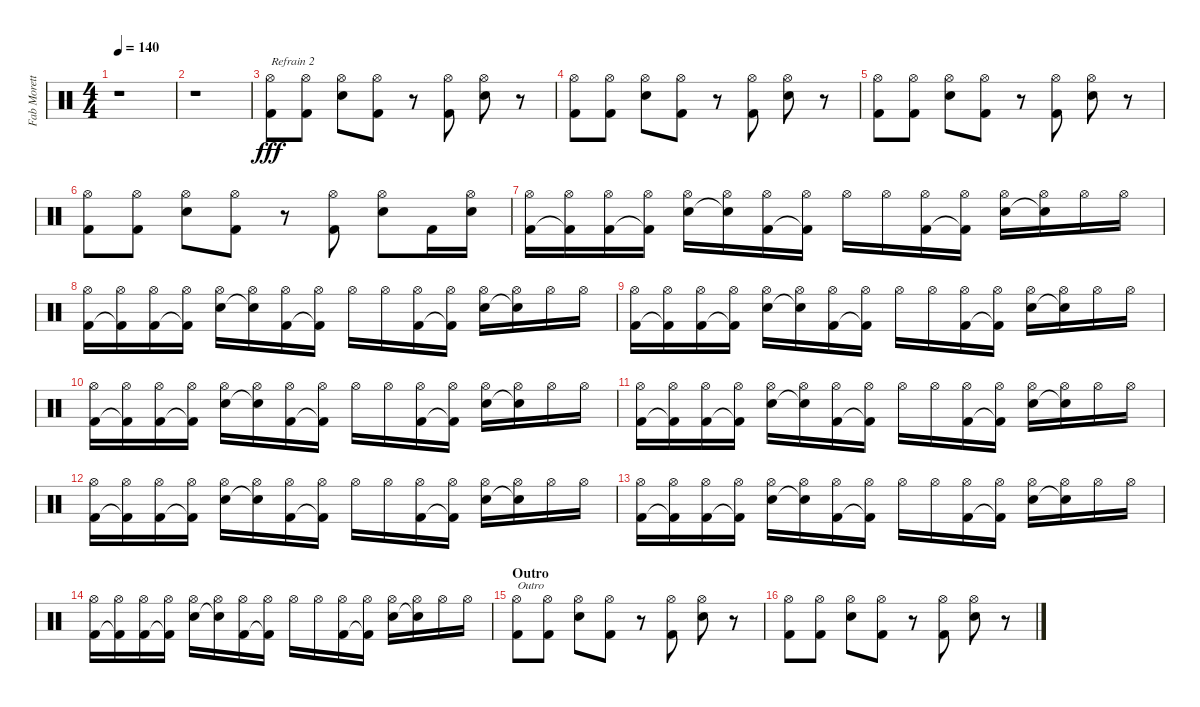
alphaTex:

\track ("Fab Moretti" "Fab Morett") {instrument percussion}
\staff {score}
\articulation defaults
\ts (4 4)
\tempo 140
\clef neutral
\ks c
r.1{dy fff} |
r.1 |
("Hi-Hat (open)" "Kick (hit) 2").8{txt "Refrain 2"} ("Hi-Hat (open)" "Kick (hit) 2").8 ("Hi-Hat (open)" "Snare (hit) 2").8 ("Hi-Hat (open)" "Kick (hit) 2").8 r.8 ("Hi-Hat (open)" "Kick (hit) 2").8 ("Hi-Hat (open)" "Snare (hit) 2").8 r.8 |
("Hi-Hat (open)" "Kick (hit) 2").8 ("Hi-Hat (open)" "Kick (hit) 2").8 ("Hi-Hat (open)" "Snare (hit) 2").8 ("Hi-Hat (open)" "Kick (hit) 2").8 r.8 ("Hi-Hat (open)" "Kick (hit) 2").8 ("Hi-Hat (open)" "Snare (hit) 2").8 r.8 |
("Hi-Hat (open)" "Kick (hit) 2").8 ("Hi-Hat (open)" "Kick (hit) 2").8 ("Hi-Hat (open)" "Snare (hit) 2").8 ("Hi-Hat (open)" "Kick (hit) 2").8 r.8 ("Hi-Hat (open)" "Kick (hit) 2").8 ("Hi-Hat (open)" "Snare (hit) 2").8 r.8 |
("Hi-Hat (open)" "Kick (hit) 2").8 ("Hi-Hat (open)" "Kick (hit) 2").8 ("Hi-Hat (open)" "Snare (hit) 2").8 ("Hi-Hat (open)" "Kick (hit) 2").8 r.8 ("Hi-Hat (open)" "Kick (hit) 2").8 ("Hi-Hat (open)" "Snare (hit) 2").8 "Kick (hit) 2".16 ("Hi-Hat (open)" "Snare (hit) 2").16 |
("Hi-Hat (open)" "Kick (hit) 2").16 ("Hi-Hat (open)" "Kick (hit) 2"{t}).16 ("Hi-Hat (open)" "Kick (hit) 2").16 ("Hi-Hat (open)" "Kick (hit) 2"{t}).16 ("Hi-Hat (open)" "Snare (hit) 2").16 ("Hi-Hat (open)" "Snare (hit) 2"{t}).16 ("Hi-Hat (open)" "Kick (hit) 2").16 ("Hi-Hat (open)" "Kick (hit) 2"{t}).16 "Hi-Hat (open)".16 "Hi-Hat (open)".16 ("Hi-Hat (open)" "Kick (hit) 2").16 ("Hi-Hat (open)" "Kick (hit) 2"{t}).16 ("Hi-Hat (open)" "Snare (hit) 2").16 ("Hi-Hat (open)" "Snare (hit) 2"{t}).16 "Hi-Hat (open)".16 "Hi-Hat (open)".16 |
("Hi-Hat (open)" "Kick (hit) 2").16 ("Hi-Hat (open)" "Kick (hit) 2"{t}).16 ("Hi-Hat (open)" "Kick (hit) 2").16 ("Hi-Hat (open)" "Kick (hit) 2"{t}).16 ("Hi-Hat (open)" "Snare (hit) 2").16 ("Hi-Hat (open)" "Snare (hit) 2"{t}).16 ("Hi-Hat (open)" "Kick (hit) 2").16 ("Hi-Hat (open)" "Kick (hit) 2"{t}).16 "Hi-Hat (open)".16 "Hi-Hat (open)".16 ("Hi-Hat (open)" "Kick (hit) 2").16 ("Hi-Hat (open)" "Kick (hit) 2"{t}).16 ("Hi-Hat (open)" "Snare (hit) 2").16 ("Hi-Hat (open)" "Snare (hit) 2"{t}).16 "Hi-Hat (open)".16 "Hi-Hat (open)".16 |
("Hi-Hat (open)" "Kick (hit) 2").16 ("Hi-Hat (open)" "Kick (hit) 2"{t}).16 ("Hi-Hat (open)" "Kick (hit) 2").16 ("Hi-Hat (open)" "Kick (hit) 2"{t}).16 ("Hi-Hat (open)" "Snare (hit) 2").16 ("Hi-Hat (open)" "Snare (hit) 2"{t}).16 ("Hi-Hat (open)" "Kick (hit) 2").16 ("Hi-Hat (open)" "Kick (hit) 2"{t}).16 "Hi-Hat (open)".16 "Hi-Hat (open)".16 ("Hi-Hat (open)" "Kick (hit) 2").16 ("Hi-Hat (open)" "Kick (hit) 2"{t}).16 ("Hi-Hat (open)" "Snare (hit) 2").16 ("Hi-Hat (open)" "Snare (hit) 2"{t}).16 "Hi-Hat (open)".16 "Hi-Hat (open)".16 |
("Hi-Hat (open)" "Kick (hit) 2").16 ("Hi-Hat (open)" "Kick (hit) 2"{t}).16 ("Hi-Hat (open)" "Kick (hit) 2").16 ("Hi-Hat (open)" "Kick (hit) 2"{t}).16 ("Hi-Hat (open)" "Snare (hit) 2").16 ("Hi-Hat (open)" "Snare (hit) 2"{t}).16 ("Hi-Hat (open)" "Kick (hit) 2").16 ("Hi-Hat (open)" "Kick (hit) 2"{t}).16 "Hi-Hat (open)".16 "Hi-Hat (open)".16 ("Hi-Hat (open)" "Kick (hit) 2").16 ("Hi-Hat (open)" "Kick (hit) 2"{t}).16 ("Hi-Hat (open)" "Snare (hit) 2").16 ("Hi-Hat (open)" "Snare (hit) 2"{t}).16 "Hi-Hat (open)".16 "Hi-Hat (open)".16 |
("Hi-Hat (open)" "Kick (hit) 2").16 ("Hi-Hat (open)" "Kick (hit) 2"{t}).16 ("Hi-Hat (open)" "Kick (hit) 2").16 ("Hi-Hat (open)" "Kick (hit) 2"{t}).16 ("Hi-Hat (open)" "Snare (hit) 2").16 ("Hi-Hat (open)" "Snare (hit) 2"{t}).16 ("Hi-Hat (open)" "Kick (hit) 2").16 ("Hi-Hat (open)" "Kick (hit) 2"{t}).16 "Hi-Hat (open)".16 "Hi-Hat (open)".16 ("Hi-Hat (open)" "Kick (hit) 2").16 ("Hi-Hat (open)" "Kick (hit) 2"{t}).16 ("Hi-Hat (open)" "Snare (hit) 2").16 ("Hi-Hat (open)" "Snare (hit) 2"{t}).16 "Hi-Hat (open)".16 "Hi-Hat (open)".16 |
("Hi-Hat (open)" "Kick (hit) 2").16 ("Hi-Hat (open)" "Kick (hit) 2"{t}).16 ("Hi-Hat (open)" "Kick (hit) 2").16 ("Hi-Hat (open)" "Kick (hit) 2"{t}).16 ("Hi-Hat (open)" "Snare (hit) 2").16 ("Hi-Hat (open)" "Snare (hit) 2"{t}).16 ("Hi-Hat (open)" "Kick (hit) 2").16 ("Hi-Hat (open)" "Kick (hit) 2"{t}).16 "Hi-Hat (open)".16 "Hi-Hat (open)".16 ("Hi-Hat (open)" "Kick (hit) 2").16 ("Hi-Hat (open)" "Kick (hit) 2"{t}).16 ("Hi-Hat (open)" "Snare (hit) 2").16 ("Hi-Hat (open)" "Snare (hit) 2"{t}).16 "Hi-Hat (open)".16 "Hi-Hat (open)".16 |
("Hi-Hat (open)" "Kick (hit) 2").16 ("Hi-Hat (open)" "Kick (hit) 2"{t}).16 ("Hi-Hat (open)" "Kick (hit) 2").16 ("Hi-Hat (open)" "Kick (hit) 2"{t}).16 ("Hi-Hat (open)" "Snare (hit) 2").16 ("Hi-Hat (open)" "Snare (hit) 2"{t}).16 ("Hi-Hat (open)" "Kick (hit) 2").16 ("Hi-Hat (open)" "Kick (hit) 2"{t}).16 "Hi-Hat (open)".16 "Hi-Hat (open)".16 ("Hi-Hat (open)" "Kick (hit) 2").16 ("Hi-Hat (open)" "Kick (hit) 2"{t}).16 ("Hi-Hat (open)" "Snare (hit) 2").16 ("Hi-Hat (open)" "Snare (hit) 2"{t}).16 "Hi-Hat (open)".16 "Hi-Hat (open)".16 |
("Hi-Hat (open)" "Kick (hit) 2").16 ("Hi-Hat (open)" "Kick (hit) 2"{t}).16 ("Hi-Hat (open)" "Kick (hit) 2").16 ("Hi-Hat (open)" "Kick (hit) 2"{t}).16 ("Hi-Hat (open)" "Snare (hit) 2").16 ("Hi-Hat (open)" "Snare (hit) 2"{t}).16 ("Hi-Hat (open)" "Kick (hit) 2").16 ("Hi-Hat (open)" "Kick (hit) 2"{t}).16 "Hi-Hat (open)".16 "Hi-Hat (open)".16 ("Hi-Hat (open)" "Kick (hit) 2").16 ("Hi-Hat (open)" "Kick (hit) 2"{t}).16 ("Hi-Hat (open)" "Snare (hit) 2").16 ("Hi-Hat (open)" "Snare (hit) 2"{t}).16 "Hi-Hat (open)".16 "Hi-Hat (open)".16 |
\section ("" "Outro")
("Hi-Hat (open)" "Kick (hit) 2").8{txt "Outro"} ("Hi-Hat (open)" "Kick (hit) 2").8 ("Hi-Hat (open)" "Snare (hit) 2").8 ("Hi-Hat (open)" "Kick (hit) 2").8 r.8 ("Hi-Hat (open)" "Kick (hit) 2").8 ("Hi-Hat (open)" "Snare (hit) 2").8 r.8 |
("Hi-Hat (open)" "Kick (hit) 2").8 ("Hi-Hat (open)" "Kick (hit) 2").8 ("Hi-Hat (open)" "Snare (hit) 2").8 ("Hi-Hat (open)" "Kick (hit) 2").8 r.8 ("Hi-Hat (open)" "Kick (hit) 2").8 ("Hi-Hat (open)" "Snare (hit) 2").8 r.8
